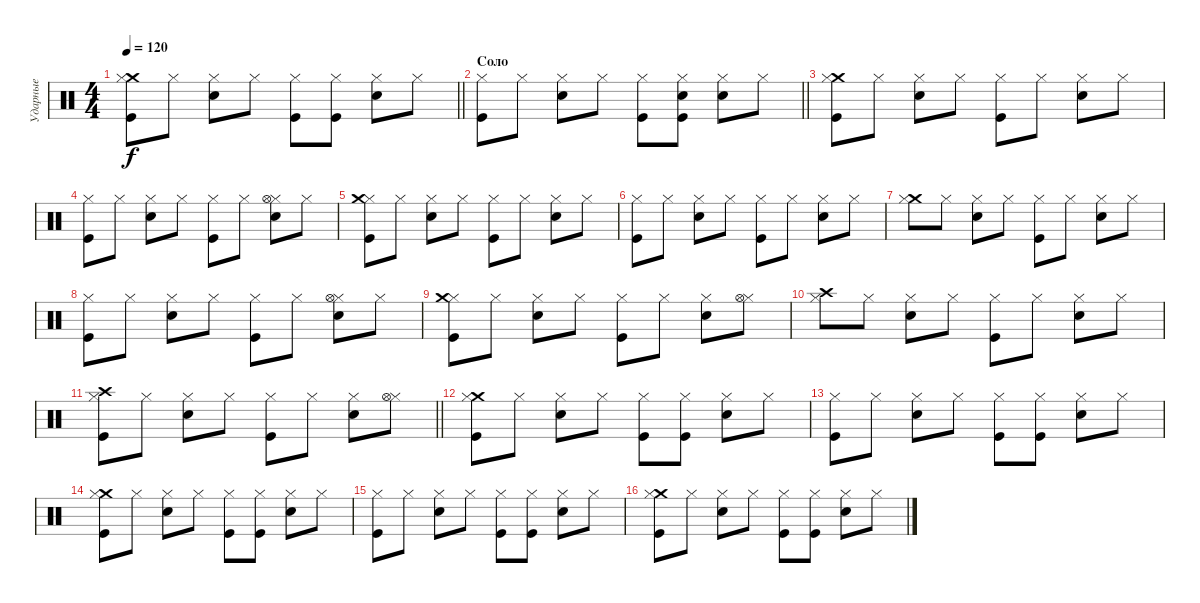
\track ("Ударные" "Ударные") {instrument percussion}
\staff {score}
\articulation defaults
\ts (4 4)
\tempo 120
\clef neutral
\barLineRight lightlight
\ks c
("Crash medium (hit)" "Hi-Hat (closed)" "Kick (hit)").8{dy f} "Hi-Hat (closed)".8 ("Snare (hit) 2" "Hi-Hat (closed)").8 "Hi-Hat (closed)".8 ("Kick (hit)" "Hi-Hat (closed)").8 ("Kick (hit)" "Hi-Hat (closed)").8 ("Snare (hit) 2" "Hi-Hat (closed)").8 "Hi-Hat (closed)".8 |
\section ("" "Соло")
\barLineRight lightlight
("Kick (hit)" "Hi-Hat (closed)").8 "Hi-Hat (closed)".8 ("Snare (hit) 2" "Hi-Hat (closed)").8 "Hi-Hat (closed)".8 ("Kick (hit)" "Hi-Hat (closed)").8 ("Kick (hit)" "Hi-Hat (closed)" "Snare (hit) 2").8 ("Snare (hit) 2" "Hi-Hat (closed)").8 "Hi-Hat (closed)".8 |
("Crash medium (hit)" "Hi-Hat (closed)" "Kick (hit)").8 "Hi-Hat (closed)".8 ("Snare (hit) 2" "Hi-Hat (closed)").8 "Hi-Hat (closed)".8 ("Kick (hit)" "Hi-Hat (closed)").8 "Hi-Hat (closed)".8 ("Snare (hit) 2" "Hi-Hat (closed)").8 "Hi-Hat (closed)".8 |
("Kick (hit)" "Hi-Hat (closed)").8 "Hi-Hat (closed)".8 ("Snare (hit) 2" "Hi-Hat (closed)").8 "Hi-Hat (closed)".8 ("Kick (hit)" "Hi-Hat (closed)").8 "Hi-Hat (closed)".8 ("Snare (hit) 2" "Hi-Hat (closed)" "Hi-Hat (open)").8 "Hi-Hat (closed)".8 |
("Hi-Hat (closed)" "Kick (hit)" "Crash medium (hit)").8 "Hi-Hat (closed)".8 ("Snare (hit) 2" "Hi-Hat (closed)").8 "Hi-Hat (closed)".8 ("Kick (hit)" "Hi-Hat (closed)").8 "Hi-Hat (closed)".8 ("Snare (hit) 2" "Hi-Hat (closed)").8 "Hi-Hat (closed)".8 |
("Kick (hit)" "Hi-Hat (closed)").8 "Hi-Hat (closed)".8 ("Snare (hit) 2" "Hi-Hat (closed)").8 "Hi-Hat (closed)".8 ("Kick (hit)" "Hi-Hat (closed)").8 "Hi-Hat (closed)".8 ("Snare (hit) 2" "Hi-Hat (closed)").8 "Hi-Hat (closed)".8 |
("Crash medium (hit)" "Hi-Hat (closed)").8 "Hi-Hat (closed)".8 ("Snare (hit) 2" "Hi-Hat (closed)").8 "Hi-Hat (closed)".8 ("Kick (hit)" "Hi-Hat (closed)").8 "Hi-Hat (closed)".8 ("Snare (hit) 2" "Hi-Hat (closed)").8 "Hi-Hat (closed)".8 |
("Kick (hit)" "Hi-Hat (closed)").8 "Hi-Hat (closed)".8 ("Snare (hit) 2" "Hi-Hat (closed)").8 "Hi-Hat (closed)".8 ("Kick (hit)" "Hi-Hat (closed)").8 "Hi-Hat (closed)".8 ("Snare (hit) 2" "Hi-Hat (closed)" "Hi-Hat (open)").8 "Hi-Hat (closed)".8 |
("Hi-Hat (closed)" "Kick (hit)" "Crash medium (hit)").8 "Hi-Hat (closed)".8 ("Snare (hit) 2" "Hi-Hat (closed)").8 "Hi-Hat (closed)".8 ("Kick (hit)" "Hi-Hat (closed)").8 "Hi-Hat (closed)".8 ("Snare (hit) 2" "Hi-Hat (closed)").8 ("Hi-Hat (closed)" "Hi-Hat (open)").8 |
("Hi-Hat (closed)" "Crash high (hit)").8 "Hi-Hat (closed)".8 ("Snare (hit) 2" "Hi-Hat (closed)").8 "Hi-Hat (closed)".8 ("Kick (hit)" "Hi-Hat (closed)").8 "Hi-Hat (closed)".8 ("Snare (hit) 2" "Hi-Hat (closed)").8 "Hi-Hat (closed)".8 |
\barLineRight lightlight
("Kick (hit)" "Hi-Hat (closed)" "Crash high (hit)").8 "Hi-Hat (closed)".8 ("Snare (hit) 2" "Hi-Hat (closed)").8 "Hi-Hat (closed)".8 ("Kick (hit)" "Hi-Hat (closed)").8 "Hi-Hat (closed)".8 ("Snare (hit) 2" "Hi-Hat (closed)").8 ("Hi-Hat (closed)" "Hi-Hat (open)").8 |
("Crash medium (hit)" "Hi-Hat (closed)" "Kick (hit)").8 "Hi-Hat (closed)".8 ("Snare (hit) 2" "Hi-Hat (closed)").8 "Hi-Hat (closed)".8 ("Kick (hit)" "Hi-Hat (closed)").8 ("Kick (hit)" "Hi-Hat (closed)").8 ("Snare (hit) 2" "Hi-Hat (closed)").8 "Hi-Hat (closed)".8 |
("Kick (hit)" "Hi-Hat (closed)").8 "Hi-Hat (closed)".8 ("Snare (hit) 2" "Hi-Hat (closed)").8 "Hi-Hat (closed)".8 ("Kick (hit)" "Hi-Hat (closed)").8 ("Kick (hit)" "Hi-Hat (closed)").8 ("Snare (hit) 2" "Hi-Hat (closed)").8 "Hi-Hat (closed)".8 |
("Crash medium (hit)" "Hi-Hat (closed)" "Kick (hit)").8 "Hi-Hat (closed)".8 ("Snare (hit) 2" "Hi-Hat (closed)").8 "Hi-Hat (closed)".8 ("Kick (hit)" "Hi-Hat (closed)").8 ("Kick (hit)" "Hi-Hat (closed)").8 ("Snare (hit) 2" "Hi-Hat (closed)").8 "Hi-Hat (closed)".8 |
("Kick (hit)" "Hi-Hat (closed)").8 "Hi-Hat (closed)".8 ("Snare (hit) 2" "Hi-Hat (closed)").8 "Hi-Hat (closed)".8 ("Kick (hit)" "Hi-Hat (closed)").8 ("Kick (hit)" "Hi-Hat (closed)").8 ("Snare (hit) 2" "Hi-Hat (closed)").8 "Hi-Hat (closed)".8 |
("Crash medium (hit)" "Hi-Hat (closed)" "Kick (hit)").8 "Hi-Hat (closed)".8 ("Snare (hit) 2" "Hi-Hat (closed)").8 "Hi-Hat (closed)".8 ("Kick (hit)" "Hi-Hat (closed)").8 ("Kick (hit)" "Hi-Hat (closed)").8 ("Snare (hit) 2" "Hi-Hat (closed)").8 "Hi-Hat (closed)".8
